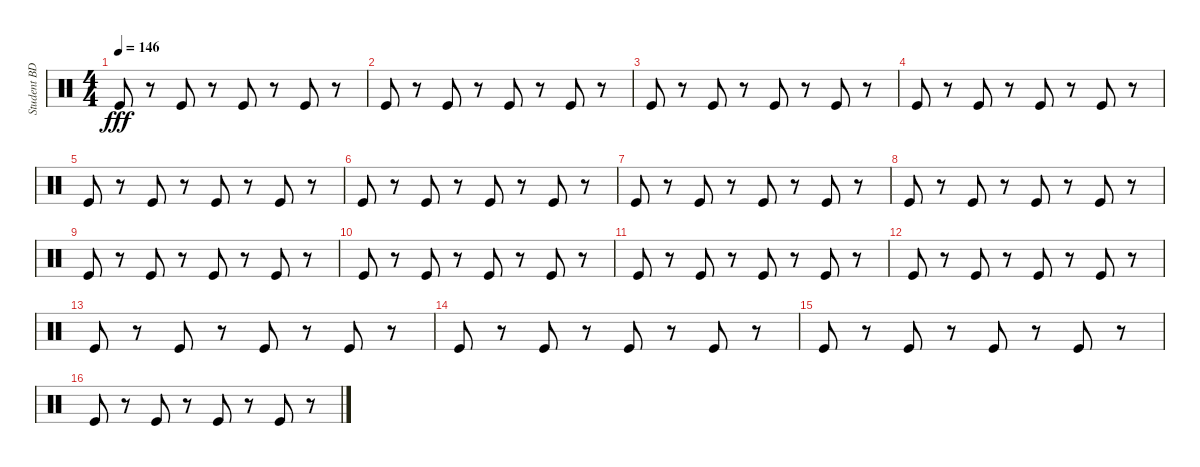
\track ("Student BD" "Student BD") {instrument percussion}
\staff {score}
\articulation defaults
\ts (4 4)
\tempo 146
\clef neutral
\ks c "Kick (hit)".8{dy fff}
r.8 "Kick (hit)".8 r.8 "Kick (hit)".8 r.8 "Kick (hit)".8 r.8 |
"Kick (hit)".8 r.8 "Kick (hit)".8 r.8 "Kick (hit)".8 r.8 "Kick (hit)".8 r.8 |
"Kick (hit)".8 r.8 "Kick (hit)".8 r.8 "Kick (hit)".8 r.8 "Kick (hit)".8 r.8 |
"Kick (hit)".8 r.8 "Kick (hit)".8 r.8 "Kick (hit)".8 r.8 "Kick (hit)".8 r.8 |
"Kick (hit)".8 r.8 "Kick (hit)".8 r.8 "Kick (hit)".8 r.8 "Kick (hit)".8 r.8 |
"Kick (hit)".8 r.8 "Kick (hit)".8 r.8 "Kick (hit)".8 r.8 "Kick (hit)".8 r.8 |
"Kick (hit)".8 r.8 "Kick (hit)".8 r.8 "Kick (hit)".8 r.8 "Kick (hit)".8 r.8 |
"Kick (hit)".8 r.8 "Kick (hit)".8 r.8 "Kick (hit)".8 r.8 "Kick (hit)".8 r.8 |
"Kick (hit)".8 r.8 "Kick (hit)".8 r.8 "Kick (hit)".8 r.8 "Kick (hit)".8 r.8 |
"Kick (hit)".8 r.8 "Kick (hit)".8 r.8 "Kick (hit)".8 r.8 "Kick (hit)".8 r.8 |
"Kick (hit)".8 r.8 "Kick (hit)".8 r.8 "Kick (hit)".8 r.8 "Kick (hit)".8 r.8 |
"Kick (hit)".8 r.8 "Kick (hit)".8 r.8 "Kick (hit)".8 r.8 "Kick (hit)".8 r.8 |
"Kick (hit)".8 r.8 "Kick (hit)".8 r.8 "Kick (hit)".8 r.8 "Kick (hit)".8 r.8 |
"Kick (hit)".8 r.8 "Kick (hit)".8 r.8 "Kick (hit)".8 r.8 "Kick (hit)".8 r.8 |
"Kick (hit)".8 r.8 "Kick (hit)".8 r.8 "Kick (hit)".8 r.8 "Kick (hit)".8 r.8 |
"Kick (hit)".8 r.8 "Kick (hit)".8 r.8 "Kick (hit)".8 r.8 "Kick (hit)".8 r.8
